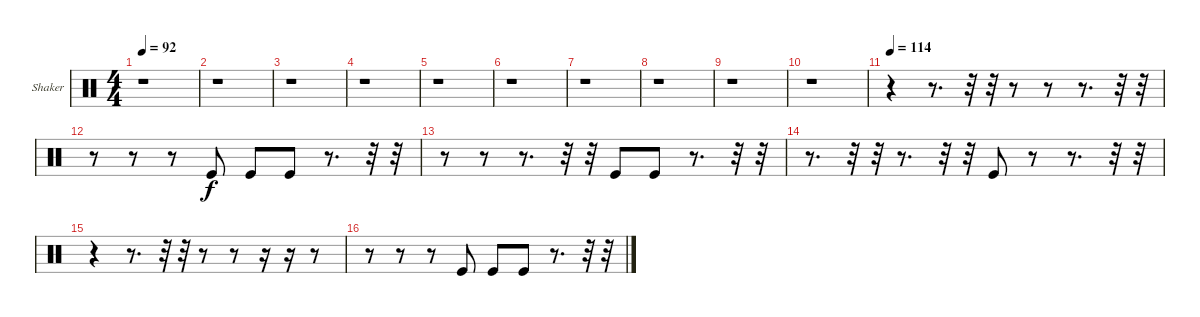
\bracketExtendMode groupsimilarinstruments
\firstSystemTrackNameOrientation horizontal
\otherSystemsTrackNameOrientation horizontal
\track ("Shaker" "Shaker") {instrument percussion}
\staff {score}
\articulation defaults
\ts (4 4)
\tempo 92
\clef neutral
\ks c
r.1{dy f} |
r.1 |
r.1 |
r.1 |
r.1 |
r.1 |
r.1 |
r.1 |
r.1 |
r.1 |
\tempo 114
r.4 r.8{d} r.32 r.32 r.8 r.8 r.8{d} r.32 r.32 |
r.8 r.8 r.8 "Kick (hit)".8 "Kick (hit)".8 "Kick (hit)".8 r.8{d} r.32 r.32 |
r.8 r.8 r.8{d} r.32 r.32 "Kick (hit)".8 "Kick (hit)".8 r.8{d} r.32 r.32 |
r.8{d} r.32 r.32 r.8{d} r.32 r.32 "Kick (hit)".8 r.8 r.8{d} r.32 r.32 |
r.4 r.8{d} r.32 r.32 r.8 r.8 r.16 r.16 r.8 |
r.8 r.8 r.8 "Kick (hit)".8 "Kick (hit)".8 "Kick (hit)".8 r.8{d} r.32 r.32
